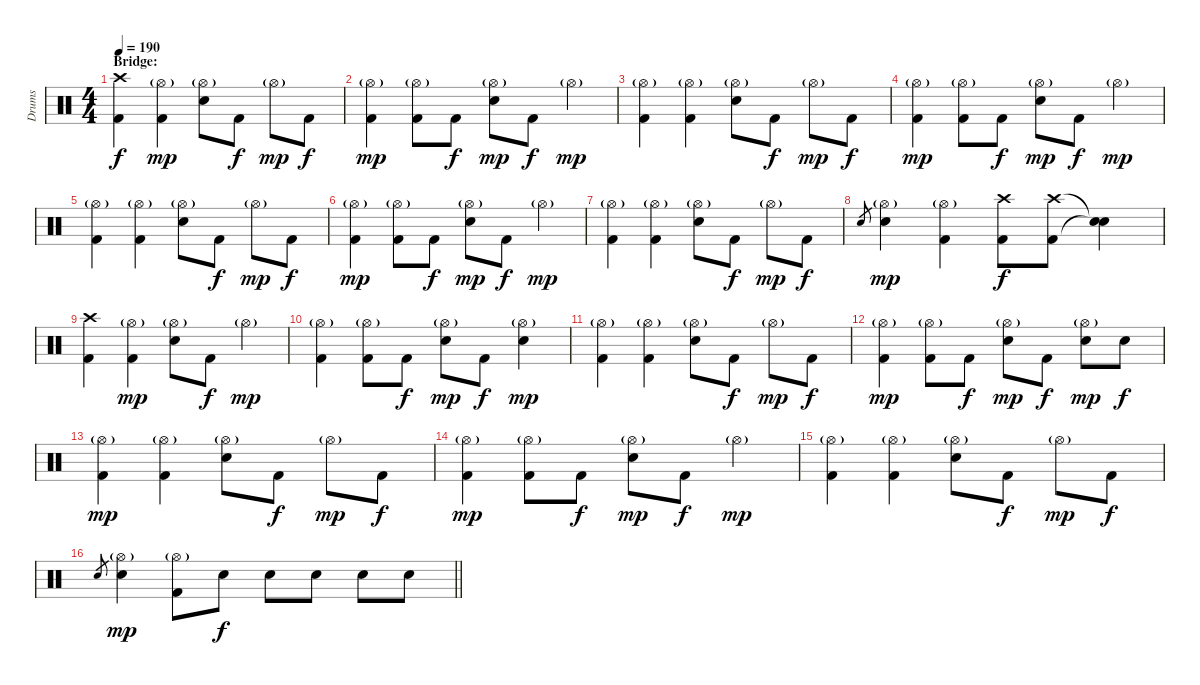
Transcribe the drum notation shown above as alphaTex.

\track ("Drums" "Drums") {instrument percussion}
\staff {score}
\articulation defaults
\ts (4 4)
\section ("" "Bridge:")
\tempo 190
\clef neutral
\ks c
("Crash high (hit)" "Kick (hit) 2").4{dy f} ("Hi-Hat (open)"{g} "Kick (hit) 2").4{dy mp} ("Hi-Hat (open)"{g} "Electric Snare (hit)").8 "Kick (hit) 2".8{dy f} "Hi-Hat (open)"{g}.8{dy mp} "Kick (hit) 2".8{dy f} |
("Hi-Hat (open)"{g} "Kick (hit) 2").4{dy mp} ("Hi-Hat (open)"{g} "Kick (hit) 2").8 "Kick (hit) 2".8{dy f} ("Hi-Hat (open)"{g} "Electric Snare (hit)").8{dy mp} "Kick (hit) 2".8{dy f} "Hi-Hat (open)"{g}.4{dy mp} |
("Hi-Hat (open)"{g} "Kick (hit) 2").4 ("Hi-Hat (open)"{g} "Kick (hit) 2").4 ("Hi-Hat (open)"{g} "Electric Snare (hit)").8 "Kick (hit) 2".8{dy f} "Hi-Hat (open)"{g}.8{dy mp} "Kick (hit) 2".8{dy f} |
("Hi-Hat (open)"{g} "Kick (hit) 2").4{dy mp} ("Hi-Hat (open)"{g} "Kick (hit) 2").8 "Kick (hit) 2".8{dy f} ("Hi-Hat (open)"{g} "Electric Snare (hit)").8{dy mp} "Kick (hit) 2".8{dy f} "Hi-Hat (open)"{g}.4{dy mp} |
("Hi-Hat (open)"{g} "Kick (hit) 2").4 ("Hi-Hat (open)"{g} "Kick (hit) 2").4 ("Hi-Hat (open)"{g} "Electric Snare (hit)").8 "Kick (hit) 2".8{dy f} "Hi-Hat (open)"{g}.8{dy mp} "Kick (hit) 2".8{dy f} |
("Hi-Hat (open)"{g} "Kick (hit) 2").4{dy mp} ("Hi-Hat (open)"{g} "Kick (hit) 2").8 "Kick (hit) 2".8{dy f} ("Hi-Hat (open)"{g} "Electric Snare (hit)").8{dy mp} "Kick (hit) 2".8{dy f} "Hi-Hat (open)"{g}.4{dy mp} |
("Hi-Hat (open)"{g} "Kick (hit) 2").4 ("Hi-Hat (open)"{g} "Kick (hit) 2").4 ("Hi-Hat (open)"{g} "Electric Snare (hit)").8 "Kick (hit) 2".8{dy f} "Hi-Hat (open)"{g}.8{dy mp} "Kick (hit) 2".8{dy f} |
"Electric Snare (hit)".8{gr} ("Hi-Hat (open)"{g} "Electric Snare (hit)").4{dy mp} ("Hi-Hat (open)"{g} "Kick (hit) 2").4 ("Crash high (hit)" "Kick (hit) 2").8{dy f} ("Crash high (hit)" "Kick (hit) 2").8 ("Snare (hit)"{t} "Snare (hit)"{t}).4 |
("Crash high (hit)" "Kick (hit) 2").4 ("Hi-Hat (open)"{g} "Kick (hit) 2").4{dy mp} ("Hi-Hat (open)"{g} "Electric Snare (hit)").8 "Kick (hit) 2".8{dy f} "Hi-Hat (open)"{g}.4{dy mp} |
("Hi-Hat (open)"{g} "Kick (hit) 2").4 ("Hi-Hat (open)"{g} "Kick (hit) 2").8 "Kick (hit) 2".8{dy f} ("Hi-Hat (open)"{g} "Electric Snare (hit)").8{dy mp} "Kick (hit) 2".8{dy f} ("Hi-Hat (open)"{g} "Electric Snare (hit)").4{dy mp} |
("Hi-Hat (open)"{g} "Kick (hit) 2").4 ("Hi-Hat (open)"{g} "Kick (hit) 2").4 ("Hi-Hat (open)"{g} "Electric Snare (hit)").8 "Kick (hit) 2".8{dy f} "Hi-Hat (open)"{g}.8{dy mp} "Kick (hit) 2".8{dy f} |
("Hi-Hat (open)"{g} "Kick (hit) 2").4{dy mp} ("Hi-Hat (open)"{g} "Kick (hit) 2").8 "Kick (hit) 2".8{dy f} ("Hi-Hat (open)"{g} "Electric Snare (hit)").8{dy mp} "Kick (hit) 2".8{dy f} ("Hi-Hat (open)"{g} "Electric Snare (hit)").8{dy mp} "Electric Snare (hit)".8{dy f} |
("Hi-Hat (open)"{g} "Kick (hit) 2").4{dy mp} ("Hi-Hat (open)"{g} "Kick (hit) 2").4 ("Hi-Hat (open)"{g} "Electric Snare (hit)").8 "Kick (hit) 2".8{dy f} "Hi-Hat (open)"{g}.8{dy mp} "Kick (hit) 2".8{dy f} |
("Hi-Hat (open)"{g} "Kick (hit) 2").4{dy mp} ("Hi-Hat (open)"{g} "Kick (hit) 2").8 "Kick (hit) 2".8{dy f} ("Hi-Hat (open)"{g} "Electric Snare (hit)").8{dy mp} "Kick (hit) 2".8{dy f} "Hi-Hat (open)"{g}.4{dy mp} |
("Hi-Hat (open)"{g} "Kick (hit) 2").4 ("Hi-Hat (open)"{g} "Kick (hit) 2").4 ("Hi-Hat (open)"{g} "Electric Snare (hit)").8 "Kick (hit) 2".8{dy f} "Hi-Hat (open)"{g}.8{dy mp} "Kick (hit) 2".8{dy f} |
\barLineRight lightlight "Electric Snare (hit)".8{gr}
("Hi-Hat (open)"{g} "Electric Snare (hit)").4{dy mp} ("Hi-Hat (open)"{g} "Kick (hit) 2").8 "Electric Snare (hit)".8{dy f} "Electric Snare (hit)".8 "Electric Snare (hit)".8 "Electric Snare (hit)".8 "Electric Snare (hit)".8
